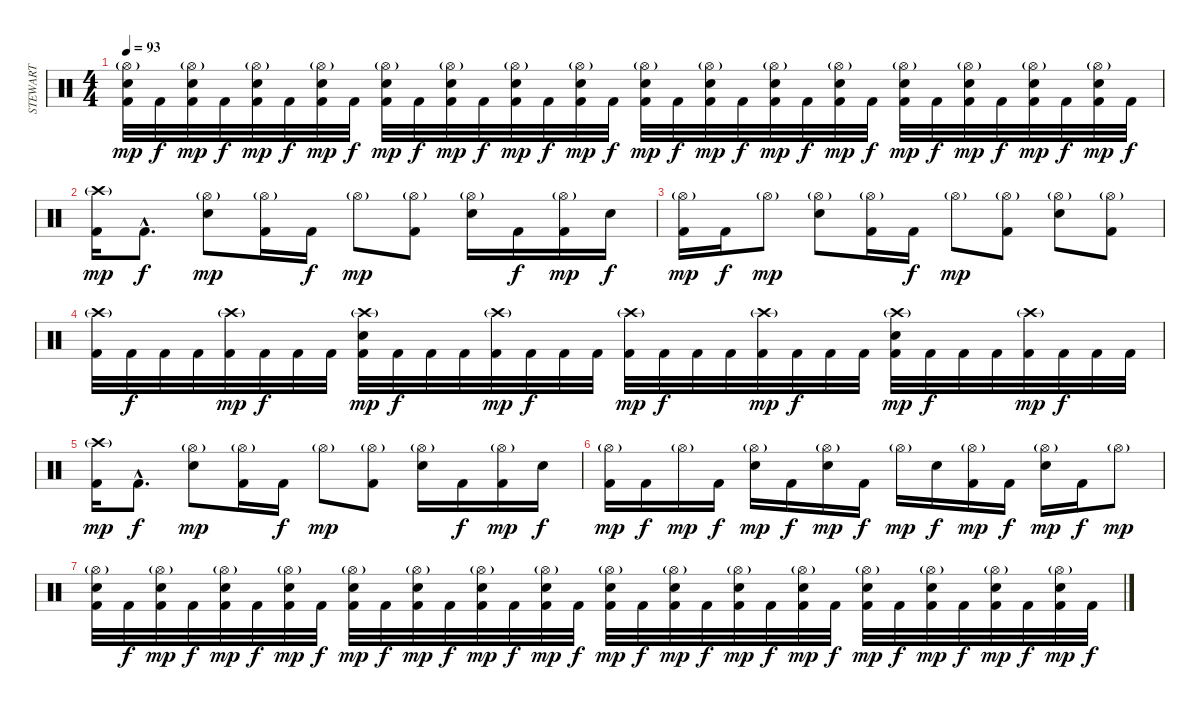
\track ("STEWART" "STEWART") {instrument percussion}
\staff {score}
\articulation defaults
\ts (4 4)
\tempo 93
\clef neutral
\ks c
("Hi-Hat (open)"{g} "Electric Snare (hit)" "Kick (hit) 2").32{dy mp} "Kick (hit) 2".32{dy f} ("Hi-Hat (open)"{g} "Electric Snare (hit)" "Kick (hit) 2").32{dy mp} "Kick (hit) 2".32{dy f} ("Hi-Hat (open)"{g} "Electric Snare (hit)" "Kick (hit) 2").32{dy mp} "Kick (hit) 2".32{dy f} ("Hi-Hat (open)"{g} "Electric Snare (hit)" "Kick (hit) 2").32{dy mp} "Kick (hit) 2".32{dy f} ("Hi-Hat (open)"{g} "Electric Snare (hit)" "Kick (hit) 2").32{dy mp} "Kick (hit) 2".32{dy f} ("Hi-Hat (open)"{g} "Electric Snare (hit)" "Kick (hit) 2").32{dy mp} "Kick (hit) 2".32{dy f} ("Hi-Hat (open)"{g} "Electric Snare (hit)" "Kick (hit) 2").32{dy mp} "Kick (hit) 2".32{dy f} ("Hi-Hat (open)"{g} "Electric Snare (hit)" "Kick (hit) 2").32{dy mp} "Kick (hit) 2".32{dy f} ("Hi-Hat (open)"{g} "Electric Snare (hit)" "Kick (hit) 2").32{dy mp} "Kick (hit) 2".32{dy f} ("Hi-Hat (open)"{g} "Electric Snare (hit)" "Kick (hit) 2").32{dy mp} "Kick (hit) 2".32{dy f} ("Hi-Hat (open)"{g} "Electric Snare (hit)" "Kick (hit) 2").32{dy mp} "Kick (hit) 2".32{dy f} ("Hi-Hat (open)"{g} "Electric Snare (hit)" "Kick (hit) 2").32{dy mp} "Kick (hit) 2".32{dy f} ("Hi-Hat (open)"{g} "Electric Snare (hit)" "Kick (hit) 2").32{dy mp} "Kick (hit) 2".32{dy f} ("Hi-Hat (open)"{g} "Electric Snare (hit)" "Kick (hit) 2").32{dy mp} "Kick (hit) 2".32{dy f} ("Hi-Hat (open)"{g} "Electric Snare (hit)" "Kick (hit) 2").32{dy mp} "Kick (hit) 2".32{dy f} ("Hi-Hat (open)"{g} "Electric Snare (hit)" "Kick (hit) 2").32{dy mp} "Kick (hit) 2".32{dy f} |
("Crash high (hit)"{g} "Kick (hit) 2").16{dy mp} "Kick (hit) 2"{hac}.8{d dy f} ("Hi-Hat (open)"{g} "Electric Snare (hit)").8{dy mp} ("Hi-Hat (open)"{g} "Kick (hit) 2").16 "Kick (hit) 2".16{dy f} "Hi-Hat (open)"{g}.8{dy mp} ("Hi-Hat (open)"{g} "Kick (hit) 2").8 ("Hi-Hat (open)"{g} "Electric Snare (hit)").16 "Kick (hit) 2".16{dy f} ("Hi-Hat (open)"{g} "Kick (hit) 2").16{dy mp} "Electric Snare (hit)".16{dy f} |
("Hi-Hat (open)"{g} "Kick (hit) 2").16{dy mp} "Kick (hit) 2".16{dy f} "Hi-Hat (open)"{g}.8{dy mp} ("Hi-Hat (open)"{g} "Electric Snare (hit)").8 ("Hi-Hat (open)"{g} "Kick (hit) 2").16 "Kick (hit) 2".16{dy f} "Hi-Hat (open)"{g}.8{dy mp} ("Hi-Hat (open)"{g} "Kick (hit) 2").8 ("Hi-Hat (open)"{g} "Electric Snare (hit)").8 ("Hi-Hat (open)"{g} "Kick (hit) 2").8 |
("Crash high (hit)"{g} "Kick (hit) 2").32 "Kick (hit) 2".32{dy f} "Kick (hit) 2".32 "Kick (hit) 2".32 ("Crash high (hit)"{g} "Kick (hit) 2").32{dy mp} "Kick (hit) 2".32{dy f} "Kick (hit) 2".32 "Kick (hit) 2".32 ("Crash high (hit)"{g} "Electric Snare (hit)" "Kick (hit) 2").32{dy mp} "Kick (hit) 2".32{dy f} "Kick (hit) 2".32 "Kick (hit) 2".32 ("Crash high (hit)"{g} "Kick (hit) 2").32{dy mp} "Kick (hit) 2".32{dy f} "Kick (hit) 2".32 "Kick (hit) 2".32 ("Crash high (hit)"{g} "Kick (hit) 2").32{dy mp} "Kick (hit) 2".32{dy f} "Kick (hit) 2".32 "Kick (hit) 2".32 ("Crash high (hit)"{g} "Kick (hit) 2").32{dy mp} "Kick (hit) 2".32{dy f} "Kick (hit) 2".32 "Kick (hit) 2".32 ("Crash high (hit)"{g} "Electric Snare (hit)" "Kick (hit) 2").32{dy mp} "Kick (hit) 2".32{dy f} "Kick (hit) 2".32 "Kick (hit) 2".32 ("Crash high (hit)"{g} "Kick (hit) 2").32{dy mp} "Kick (hit) 2".32{dy f} "Kick (hit) 2".32 "Kick (hit) 2".32 |
("Crash high (hit)"{g} "Kick (hit) 2").16{dy mp} "Kick (hit) 2"{hac}.8{d dy f} ("Hi-Hat (open)"{g} "Electric Snare (hit)").8{dy mp} ("Hi-Hat (open)"{g} "Kick (hit) 2").16 "Kick (hit) 2".16{dy f} "Hi-Hat (open)"{g}.8{dy mp} ("Hi-Hat (open)"{g} "Kick (hit) 2").8 ("Hi-Hat (open)"{g} "Electric Snare (hit)").16 "Kick (hit) 2".16{dy f} ("Hi-Hat (open)"{g} "Kick (hit) 2").16{dy mp} "Electric Snare (hit)".16{dy f} |
("Hi-Hat (open)"{g} "Kick (hit) 2").16{dy mp} "Kick (hit) 2".16{dy f} "Hi-Hat (open)"{g}.16{dy mp} "Kick (hit) 2".16{dy f} ("Hi-Hat (open)"{g} "Electric Snare (hit)").16{dy mp} "Kick (hit) 2".16{dy f} ("Hi-Hat (open)"{g} "Electric Snare (hit)").16{dy mp} "Kick (hit) 2".16{dy f} "Hi-Hat (open)"{g}.16{dy mp} "Electric Snare (hit)".16{dy f} ("Hi-Hat (open)"{g} "Kick (hit) 2").16{dy mp} "Kick (hit) 2".16{dy f} ("Hi-Hat (open)"{g} "Electric Snare (hit)").16{dy mp} "Kick (hit) 2".16{dy f} "Hi-Hat (open)"{g}.8{dy mp} |
("Hi-Hat (open)"{g} "Electric Snare (hit)" "Kick (hit) 2").32 "Kick (hit) 2".32{dy f} ("Hi-Hat (open)"{g} "Electric Snare (hit)" "Kick (hit) 2").32{dy mp} "Kick (hit) 2".32{dy f} ("Hi-Hat (open)"{g} "Electric Snare (hit)" "Kick (hit) 2").32{dy mp} "Kick (hit) 2".32{dy f} ("Hi-Hat (open)"{g} "Electric Snare (hit)" "Kick (hit) 2").32{dy mp} "Kick (hit) 2".32{dy f} ("Hi-Hat (open)"{g} "Electric Snare (hit)" "Kick (hit) 2").32{dy mp} "Kick (hit) 2".32{dy f} ("Hi-Hat (open)"{g} "Electric Snare (hit)" "Kick (hit) 2").32{dy mp} "Kick (hit) 2".32{dy f} ("Hi-Hat (open)"{g} "Electric Snare (hit)" "Kick (hit) 2").32{dy mp} "Kick (hit) 2".32{dy f} ("Hi-Hat (open)"{g} "Electric Snare (hit)" "Kick (hit) 2").32{dy mp} "Kick (hit) 2".32{dy f} ("Hi-Hat (open)"{g} "Electric Snare (hit)" "Kick (hit) 2").32{dy mp} "Kick (hit) 2".32{dy f} ("Hi-Hat (open)"{g} "Electric Snare (hit)" "Kick (hit) 2").32{dy mp} "Kick (hit) 2".32{dy f} ("Hi-Hat (open)"{g} "Electric Snare (hit)" "Kick (hit) 2").32{dy mp} "Kick (hit) 2".32{dy f} ("Hi-Hat (open)"{g} "Electric Snare (hit)" "Kick (hit) 2").32{dy mp} "Kick (hit) 2".32{dy f} ("Hi-Hat (open)"{g} "Electric Snare (hit)" "Kick (hit) 2").32{dy mp} "Kick (hit) 2".32{dy f} ("Hi-Hat (open)"{g} "Electric Snare (hit)" "Kick (hit) 2").32{dy mp} "Kick (hit) 2".32{dy f} ("Hi-Hat (open)"{g} "Electric Snare (hit)" "Kick (hit) 2").32{dy mp} "Kick (hit) 2".32{dy f} ("Hi-Hat (open)"{g} "Electric Snare (hit)" "Kick (hit) 2").32{dy mp} "Kick (hit) 2".32{dy f}
